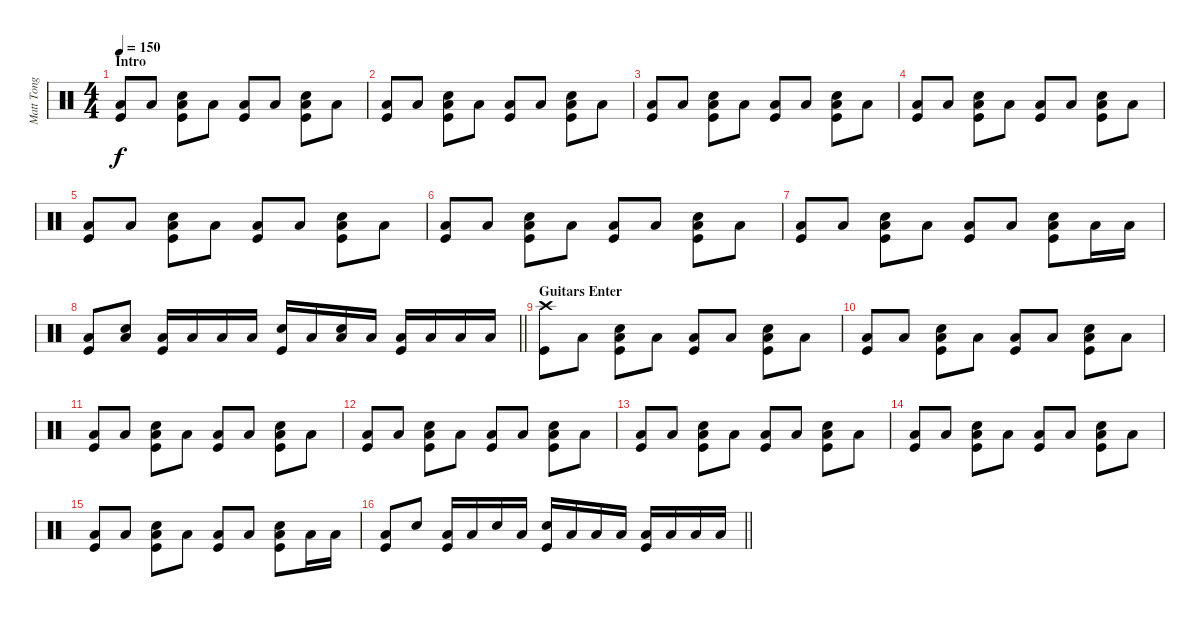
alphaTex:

\track ("Matt Tong (Drums)" "Matt Tong ") {instrument percussion}
\staff {score}
\articulation defaults
\ts (4 4)
\section ("" "Intro")
\tempo 150
\clef neutral
\ks c
("Low Floor Tom (hit)" "Kick (hit)").8{dy f} "Low Floor Tom (hit)".8 ("Low Floor Tom (hit)" "Electric Snare (hit)" "Kick (hit)").8 "Low Floor Tom (hit)".8 ("Low Floor Tom (hit)" "Kick (hit)").8 "Low Floor Tom (hit)".8 ("Low Floor Tom (hit)" "Electric Snare (hit)" "Kick (hit)").8 "Low Floor Tom (hit)".8 |
("Low Floor Tom (hit)" "Kick (hit)").8 "Low Floor Tom (hit)".8 ("Low Floor Tom (hit)" "Electric Snare (hit)" "Kick (hit)").8 "Low Floor Tom (hit)".8 ("Low Floor Tom (hit)" "Kick (hit)").8 "Low Floor Tom (hit)".8 ("Low Floor Tom (hit)" "Electric Snare (hit)" "Kick (hit)").8 "Low Floor Tom (hit)".8 |
("Low Floor Tom (hit)" "Kick (hit)").8 "Low Floor Tom (hit)".8 ("Low Floor Tom (hit)" "Electric Snare (hit)" "Kick (hit)").8 "Low Floor Tom (hit)".8 ("Low Floor Tom (hit)" "Kick (hit)").8 "Low Floor Tom (hit)".8 ("Low Floor Tom (hit)" "Electric Snare (hit)" "Kick (hit)").8 "Low Floor Tom (hit)".8 |
("Low Floor Tom (hit)" "Kick (hit)").8 "Low Floor Tom (hit)".8 ("Low Floor Tom (hit)" "Electric Snare (hit)" "Kick (hit)").8 "Low Floor Tom (hit)".8 ("Low Floor Tom (hit)" "Kick (hit)").8 "Low Floor Tom (hit)".8 ("Low Floor Tom (hit)" "Electric Snare (hit)" "Kick (hit)").8 "Low Floor Tom (hit)".8 |
("Low Floor Tom (hit)" "Kick (hit)").8 "Low Floor Tom (hit)".8 ("Low Floor Tom (hit)" "Electric Snare (hit)" "Kick (hit)").8 "Low Floor Tom (hit)".8 ("Low Floor Tom (hit)" "Kick (hit)").8 "Low Floor Tom (hit)".8 ("Low Floor Tom (hit)" "Electric Snare (hit)" "Kick (hit)").8 "Low Floor Tom (hit)".8 |
("Low Floor Tom (hit)" "Kick (hit)").8 "Low Floor Tom (hit)".8 ("Low Floor Tom (hit)" "Electric Snare (hit)" "Kick (hit)").8 "Low Floor Tom (hit)".8 ("Low Floor Tom (hit)" "Kick (hit)").8 "Low Floor Tom (hit)".8 ("Low Floor Tom (hit)" "Electric Snare (hit)" "Kick (hit)").8 "Low Floor Tom (hit)".8 |
("Low Floor Tom (hit)" "Kick (hit)").8 "Low Floor Tom (hit)".8 ("Low Floor Tom (hit)" "Electric Snare (hit)" "Kick (hit)").8 "Low Floor Tom (hit)".8 ("Low Floor Tom (hit)" "Kick (hit)").8 "Low Floor Tom (hit)".8 ("Low Floor Tom (hit)" "Electric Snare (hit)" "Kick (hit)").8 "Low Floor Tom (hit)".16 "Low Floor Tom (hit)".16 |
\barLineRight lightlight
("Low Floor Tom (hit)" "Kick (hit)").8 ("Low Floor Tom (hit)" "Electric Snare (hit)").8 ("Low Floor Tom (hit)" "Kick (hit)").16 "Low Floor Tom (hit)".16 "Low Floor Tom (hit)".16 "Low Floor Tom (hit)".16 ("Electric Snare (hit)" "Kick (hit)").16 "Low Floor Tom (hit)".16 ("Low Floor Tom (hit)" "Electric Snare (hit)").16 "Low Floor Tom (hit)".16 ("Low Tom (hit)" "Kick (hit)").16 "Low Tom (hit)".16 "Low Tom (hit)".16 "Low Tom (hit)".16 |
\section ("" "Guitars Enter")
("Crash high (hit)" "Kick (hit)").8 "Low Floor Tom (hit)".8 ("Low Floor Tom (hit)" "Electric Snare (hit)" "Kick (hit)").8 "Low Floor Tom (hit)".8 ("Low Floor Tom (hit)" "Kick (hit)").8 "Low Floor Tom (hit)".8 ("Low Floor Tom (hit)" "Electric Snare (hit)" "Kick (hit)").8 "Low Floor Tom (hit)".8 |
("Low Floor Tom (hit)" "Kick (hit)").8 "Low Floor Tom (hit)".8 ("Low Floor Tom (hit)" "Electric Snare (hit)" "Kick (hit)").8 "Low Floor Tom (hit)".8 ("Low Floor Tom (hit)" "Kick (hit)").8 "Low Floor Tom (hit)".8 ("Low Floor Tom (hit)" "Electric Snare (hit)" "Kick (hit)").8 "Low Floor Tom (hit)".8 |
("Low Floor Tom (hit)" "Kick (hit)").8 "Low Floor Tom (hit)".8 ("Low Floor Tom (hit)" "Electric Snare (hit)" "Kick (hit)").8 "Low Floor Tom (hit)".8 ("Low Floor Tom (hit)" "Kick (hit)").8 "Low Floor Tom (hit)".8 ("Low Floor Tom (hit)" "Electric Snare (hit)" "Kick (hit)").8 "Low Floor Tom (hit)".8 |
("Low Floor Tom (hit)" "Kick (hit)").8 "Low Floor Tom (hit)".8 ("Low Floor Tom (hit)" "Electric Snare (hit)" "Kick (hit)").8 "Low Floor Tom (hit)".8 ("Low Floor Tom (hit)" "Kick (hit)").8 "Low Floor Tom (hit)".8 ("Low Floor Tom (hit)" "Electric Snare (hit)" "Kick (hit)").8 "Low Floor Tom (hit)".8 |
("Low Floor Tom (hit)" "Kick (hit)").8 "Low Floor Tom (hit)".8 ("Low Floor Tom (hit)" "Electric Snare (hit)" "Kick (hit)").8 "Low Floor Tom (hit)".8 ("Low Floor Tom (hit)" "Kick (hit)").8 "Low Floor Tom (hit)".8 ("Low Floor Tom (hit)" "Electric Snare (hit)" "Kick (hit)").8 "Low Floor Tom (hit)".8 |
("Low Floor Tom (hit)" "Kick (hit)").8 "Low Floor Tom (hit)".8 ("Low Floor Tom (hit)" "Electric Snare (hit)" "Kick (hit)").8 "Low Floor Tom (hit)".8 ("Low Floor Tom (hit)" "Kick (hit)").8 "Low Floor Tom (hit)".8 ("Low Floor Tom (hit)" "Electric Snare (hit)" "Kick (hit)").8 "Low Floor Tom (hit)".8 |
("Low Floor Tom (hit)" "Kick (hit)").8 "Low Floor Tom (hit)".8 ("Low Floor Tom (hit)" "Electric Snare (hit)" "Kick (hit)").8 "Low Floor Tom (hit)".8 ("Low Floor Tom (hit)" "Kick (hit)").8 "Low Floor Tom (hit)".8 ("Low Floor Tom (hit)" "Electric Snare (hit)" "Kick (hit)").8 "Low Floor Tom (hit)".16 "Low Floor Tom (hit)".16 |
\barLineRight lightlight
("Low Floor Tom (hit)" "Kick (hit)").8 "Electric Snare (hit)".8 ("Low Floor Tom (hit)" "Kick (hit)").16 "Low Floor Tom (hit)".16 "Electric Snare (hit)".16 "Low Floor Tom (hit)".16 ("Electric Snare (hit)" "Kick (hit)").16 "Low Floor Tom (hit)".16 "Low Floor Tom (hit)".16 "Low Floor Tom (hit)".16 ("Low Floor Tom (hit)" "Kick (hit)").16 "Low Tom (hit)".16 "Low Tom (hit)".16 "Low Tom (hit)".16
